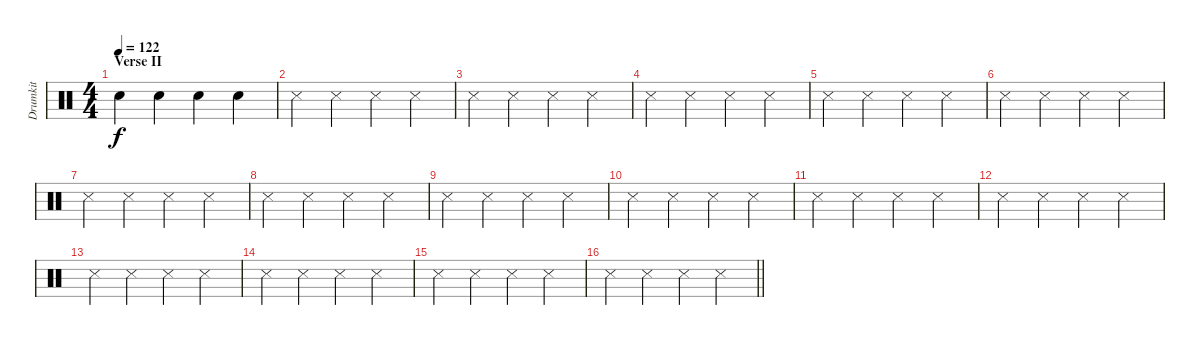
\track ("Drumkit" "Drumkit") {mute instrument percussion}
\staff {score}
\articulation defaults
\ts (4 4)
\section ("" "Verse II")
\tempo 122
\clef neutral
\ks c "Snare (hit) 2".4{dy f} "Snare (hit) 2".4 "Snare (hit) 2".4 "Snare (hit) 2".4
|
"Snare (side stick) 3".4 "Snare (side stick) 3".4 "Snare (side stick) 3".4 "Snare (side stick) 3".4 |
"Snare (side stick) 3".4 "Snare (side stick) 3".4 "Snare (side stick) 3".4 "Snare (side stick) 3".4 |
"Snare (side stick) 3".4 "Snare (side stick) 3".4 "Snare (side stick) 3".4 "Snare (side stick) 3".4 |
"Snare (side stick) 3".4 "Snare (side stick) 3".4 "Snare (side stick) 3".4 "Snare (side stick) 3".4 |
"Snare (side stick) 3".4 "Snare (side stick) 3".4 "Snare (side stick) 3".4 "Snare (side stick) 3".4 |
"Snare (side stick) 3".4 "Snare (side stick) 3".4 "Snare (side stick) 3".4 "Snare (side stick) 3".4 |
"Snare (side stick) 3".4 "Snare (side stick) 3".4 "Snare (side stick) 3".4 "Snare (side stick) 3".4 |
"Snare (side stick) 3".4 "Snare (side stick) 3".4 "Snare (side stick) 3".4 "Snare (side stick) 3".4 |
"Snare (side stick) 3".4 "Snare (side stick) 3".4 "Snare (side stick) 3".4 "Snare (side stick) 3".4 |
"Snare (side stick) 3".4 "Snare (side stick) 3".4 "Snare (side stick) 3".4 "Snare (side stick) 3".4 |
"Snare (side stick) 3".4 "Snare (side stick) 3".4 "Snare (side stick) 3".4 "Snare (side stick) 3".4 |
"Snare (side stick) 3".4 "Snare (side stick) 3".4 "Snare (side stick) 3".4 "Snare (side stick) 3".4 |
"Snare (side stick) 3".4 "Snare (side stick) 3".4 "Snare (side stick) 3".4 "Snare (side stick) 3".4 |
"Snare (side stick) 3".4 "Snare (side stick) 3".4 "Snare (side stick) 3".4 "Snare (side stick) 3".4 |
\barLineRight lightlight "Snare (side stick) 3".4 "Snare (side stick) 3".4 "Snare (side stick) 3".4 "Snare (side stick) 3".4
